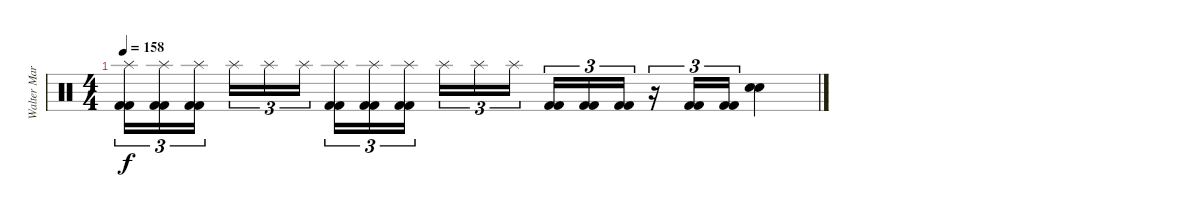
\track ("Walter Martinez (Bateria)" "Walter Mar") {instrument percussion}
\staff {score}
\articulation defaults
\ts (4 4)
\tempo 158
\clef neutral
\ks c
("Splash (hit)" "Kick (hit) 2" "Kick (hit) 2").16{tu (3 2) dy f} ("Splash (hit)" "Kick (hit) 2" "Kick (hit) 2").16{tu (3 2)} ("Splash (hit)" "Kick (hit) 2" "Kick (hit) 2").16{tu (3 2)} "Splash (hit)".16{tu (3 2)} "Splash (hit)".16{tu (3 2)} "Splash (hit)".16{tu (3 2)} ("Splash (hit)" "Kick (hit) 2" "Kick (hit) 2").16{tu (3 2)} ("Splash (hit)" "Kick (hit) 2" "Kick (hit) 2").16{tu (3 2)} ("Splash (hit)" "Kick (hit) 2" "Kick (hit) 2").16{tu (3 2)} "Splash (hit)".16{tu (3 2)} "Splash (hit)".16{tu (3 2)} "Splash (hit)".16{tu (3 2)} ("Kick (hit) 2" "Kick (hit) 2").16{tu (3 2)} ("Kick (hit) 2" "Kick (hit) 2").16{tu (3 2)} ("Kick (hit) 2" "Kick (hit) 2").16{tu (3 2)} r.16{tu (3 2)} ("Kick (hit) 2" "Kick (hit) 2").16{tu (3 2)} ("Kick (hit) 2" "Kick (hit) 2").16{tu (3 2)} ("Snare (hit) 2" "Snare (hit) 2").4
